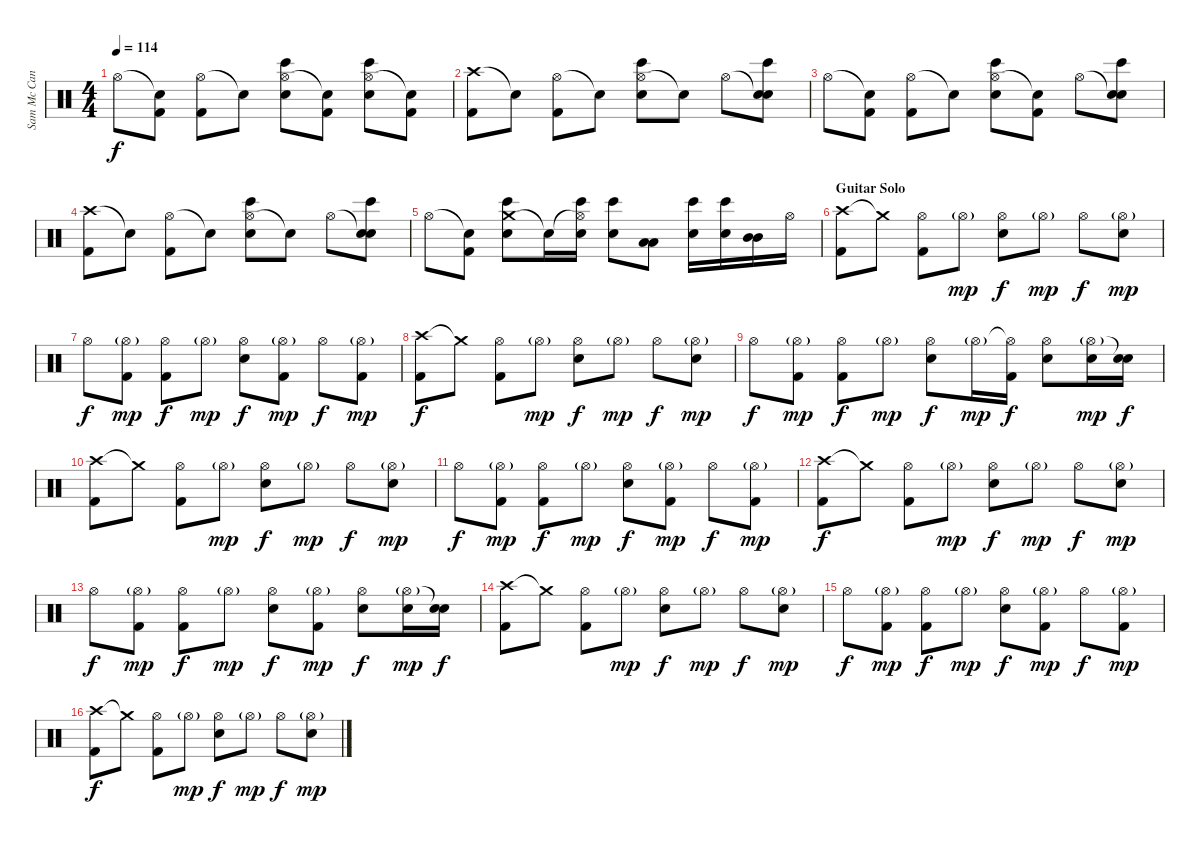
\track ("Sam Mc Candless (Drums)" "Sam Mc Can") {instrument percussion}
\staff {score}
\articulation defaults
\ts (4 4)
\tempo 114
\clef neutral
\ks c "Hi-Hat (open)".8{dy f}
("Snare (hit)"{t} "Kick (hit) 2").8 ("Hi-Hat (open)" "Kick (hit) 2").8 "Snare (hit)"{t}.8 ("Hi-Hat (open)" "Electric Snare (hit)" "Bongo High (hit)").8 ("Snare (hit)"{t} "Kick (hit) 2").8 ("Hi-Hat (open)" "Electric Snare (hit)" "Bongo High (hit)").8 ("Snare (hit)"{t} "Kick (hit) 2").8 |
("Crash high (hit)" "Kick (hit) 2").8 "Snare (hit)"{t}.8 ("Hi-Hat (open)" "Kick (hit) 2").8 "Snare (hit)"{t}.8 ("Hi-Hat (open)" "Electric Snare (hit)" "Bongo High (hit)").8 "Snare (hit)"{t}.8 "Hi-Hat (open)".8 ("Snare (hit)"{t} "Electric Snare (hit)" "Bongo High (hit)").8 |
"Hi-Hat (open)".8 ("Snare (hit)"{t} "Kick (hit) 2").8 ("Hi-Hat (open)" "Kick (hit) 2").8 "Snare (hit)"{t}.8 ("Hi-Hat (open)" "Electric Snare (hit)" "Bongo High (hit)").8 ("Snare (hit)"{t} "Kick (hit) 2").8 "Hi-Hat (open)".8 ("Snare (hit)"{t} "Electric Snare (hit)" "Bongo High (hit)").8 |
("Crash high (hit)" "Kick (hit) 2").8 "Snare (hit)"{t}.8 ("Hi-Hat (open)" "Kick (hit) 2").8 "Snare (hit)"{t}.8 ("Hi-Hat (open)" "Electric Snare (hit)" "Bongo High (hit)").8 "Snare (hit)"{t}.8 "Hi-Hat (open)".8 ("Snare (hit)"{t} "Electric Snare (hit)" "Bongo High (hit)").8 |
"Hi-Hat (open)".8 ("Snare (hit)"{t} "Kick (hit) 2").8 ("Crash medium (hit)" "Electric Snare (hit)" "Bongo High (hit)").8 "Snare (hit)"{t}.16 ("Hi-Hat (open)"{t} "Electric Snare (hit)" "Bongo High (hit)").16 ("Electric Snare (hit)" "Bongo High (hit)").8 ("Low Tom (hit)" "Low Tom (hit)").8 ("Electric Snare (hit)" "Bongo High (hit)").16 ("Electric Snare (hit)" "Bongo High (hit)").16 ("Mid Tom (hit)" "Mid Tom (hit)").16 "Hi-Hat (open)".16 |
\section ("" "Guitar Solo")
("Crash high (hit)" "Kick (hit) 2").8 "Crash medium (hit)"{t}.8 ("Hi-Hat (open)" "Kick (hit) 2").8 "Hi-Hat (open)"{g}.8{dy mp} ("Hi-Hat (open)" "Electric Snare (hit)").8{dy f} "Hi-Hat (open)"{g}.8{dy mp} "Hi-Hat (open)".8{dy f} ("Hi-Hat (open)"{g} "Electric Snare (hit)").8{dy mp} |
"Hi-Hat (open)".8{dy f} ("Hi-Hat (open)"{g} "Kick (hit) 2").8{dy mp} ("Hi-Hat (open)" "Kick (hit) 2").8{dy f} "Hi-Hat (open)"{g}.8{dy mp} ("Hi-Hat (open)" "Electric Snare (hit)").8{dy f} ("Hi-Hat (open)"{g} "Kick (hit) 2").8{dy mp} "Hi-Hat (open)".8{dy f} ("Hi-Hat (open)"{g} "Kick (hit) 2").8{dy mp} |
("Crash high (hit)" "Kick (hit) 2").8{dy f} "Crash medium (hit)"{t}.8 ("Hi-Hat (open)" "Kick (hit) 2").8 "Hi-Hat (open)"{g}.8{dy mp} ("Hi-Hat (open)" "Electric Snare (hit)").8{dy f} "Hi-Hat (open)"{g}.8{dy mp} "Hi-Hat (open)".8{dy f} ("Hi-Hat (open)"{g} "Electric Snare (hit)").8{dy mp} |
"Hi-Hat (open)".8{dy f} ("Hi-Hat (open)"{g} "Kick (hit) 2").8{dy mp} ("Hi-Hat (open)" "Kick (hit) 2").8{dy f} "Hi-Hat (open)"{g}.8{dy mp} ("Hi-Hat (open)" "Electric Snare (hit)").8{dy f} "Hi-Hat (open)"{g}.16{dy mp} ("Hi-Hat (open)"{t} "Kick (hit) 2").16{dy f} ("Hi-Hat (open)" "Electric Snare (hit)").8 ("Hi-Hat (open)"{g} "Electric Snare (hit)").16{dy mp} ("Snare (hit)"{t} "Electric Snare (hit)").16{dy f} |
("Crash high (hit)" "Kick (hit) 2").8 "Crash medium (hit)"{t}.8 ("Hi-Hat (open)" "Kick (hit) 2").8 "Hi-Hat (open)"{g}.8{dy mp} ("Hi-Hat (open)" "Electric Snare (hit)").8{dy f} "Hi-Hat (open)"{g}.8{dy mp} "Hi-Hat (open)".8{dy f} ("Hi-Hat (open)"{g} "Electric Snare (hit)").8{dy mp} |
"Hi-Hat (open)".8{dy f} ("Hi-Hat (open)"{g} "Kick (hit) 2").8{dy mp} ("Hi-Hat (open)" "Kick (hit) 2").8{dy f} "Hi-Hat (open)"{g}.8{dy mp} ("Hi-Hat (open)" "Electric Snare (hit)").8{dy f} ("Hi-Hat (open)"{g} "Kick (hit) 2").8{dy mp} "Hi-Hat (open)".8{dy f} ("Hi-Hat (open)"{g} "Kick (hit) 2").8{dy mp} |
("Crash high (hit)" "Kick (hit) 2").8{dy f} "Crash medium (hit)"{t}.8 ("Hi-Hat (open)" "Kick (hit) 2").8 "Hi-Hat (open)"{g}.8{dy mp} ("Hi-Hat (open)" "Electric Snare (hit)").8{dy f} "Hi-Hat (open)"{g}.8{dy mp} "Hi-Hat (open)".8{dy f} ("Hi-Hat (open)"{g} "Electric Snare (hit)").8{dy mp} |
"Hi-Hat (open)".8{dy f} ("Hi-Hat (open)"{g} "Kick (hit) 2").8{dy mp} ("Hi-Hat (open)" "Kick (hit) 2").8{dy f} "Hi-Hat (open)"{g}.8{dy mp} ("Hi-Hat (open)" "Electric Snare (hit)").8{dy f} ("Hi-Hat (open)"{g} "Kick (hit) 2").8{dy mp} ("Hi-Hat (open)" "Electric Snare (hit)").8{dy f} ("Hi-Hat (open)"{g} "Electric Snare (hit)").16{dy mp} ("Snare (hit)"{t} "Electric Snare (hit)").16{dy f} |
("Crash high (hit)" "Kick (hit) 2").8 "Crash medium (hit)"{t}.8 ("Hi-Hat (open)" "Kick (hit) 2").8 "Hi-Hat (open)"{g}.8{dy mp} ("Hi-Hat (open)" "Electric Snare (hit)").8{dy f} "Hi-Hat (open)"{g}.8{dy mp} "Hi-Hat (open)".8{dy f} ("Hi-Hat (open)"{g} "Electric Snare (hit)").8{dy mp} |
"Hi-Hat (open)".8{dy f} ("Hi-Hat (open)"{g} "Kick (hit) 2").8{dy mp} ("Hi-Hat (open)" "Kick (hit) 2").8{dy f} "Hi-Hat (open)"{g}.8{dy mp} ("Hi-Hat (open)" "Electric Snare (hit)").8{dy f} ("Hi-Hat (open)"{g} "Kick (hit) 2").8{dy mp} "Hi-Hat (open)".8{dy f} ("Hi-Hat (open)"{g} "Kick (hit) 2").8{dy mp} |
("Crash high (hit)" "Kick (hit) 2").8{dy f} "Crash medium (hit)"{t}.8 ("Hi-Hat (open)" "Kick (hit) 2").8 "Hi-Hat (open)"{g}.8{dy mp} ("Hi-Hat (open)" "Electric Snare (hit)").8{dy f} "Hi-Hat (open)"{g}.8{dy mp} "Hi-Hat (open)".8{dy f} ("Hi-Hat (open)"{g} "Electric Snare (hit)").8{dy mp}
